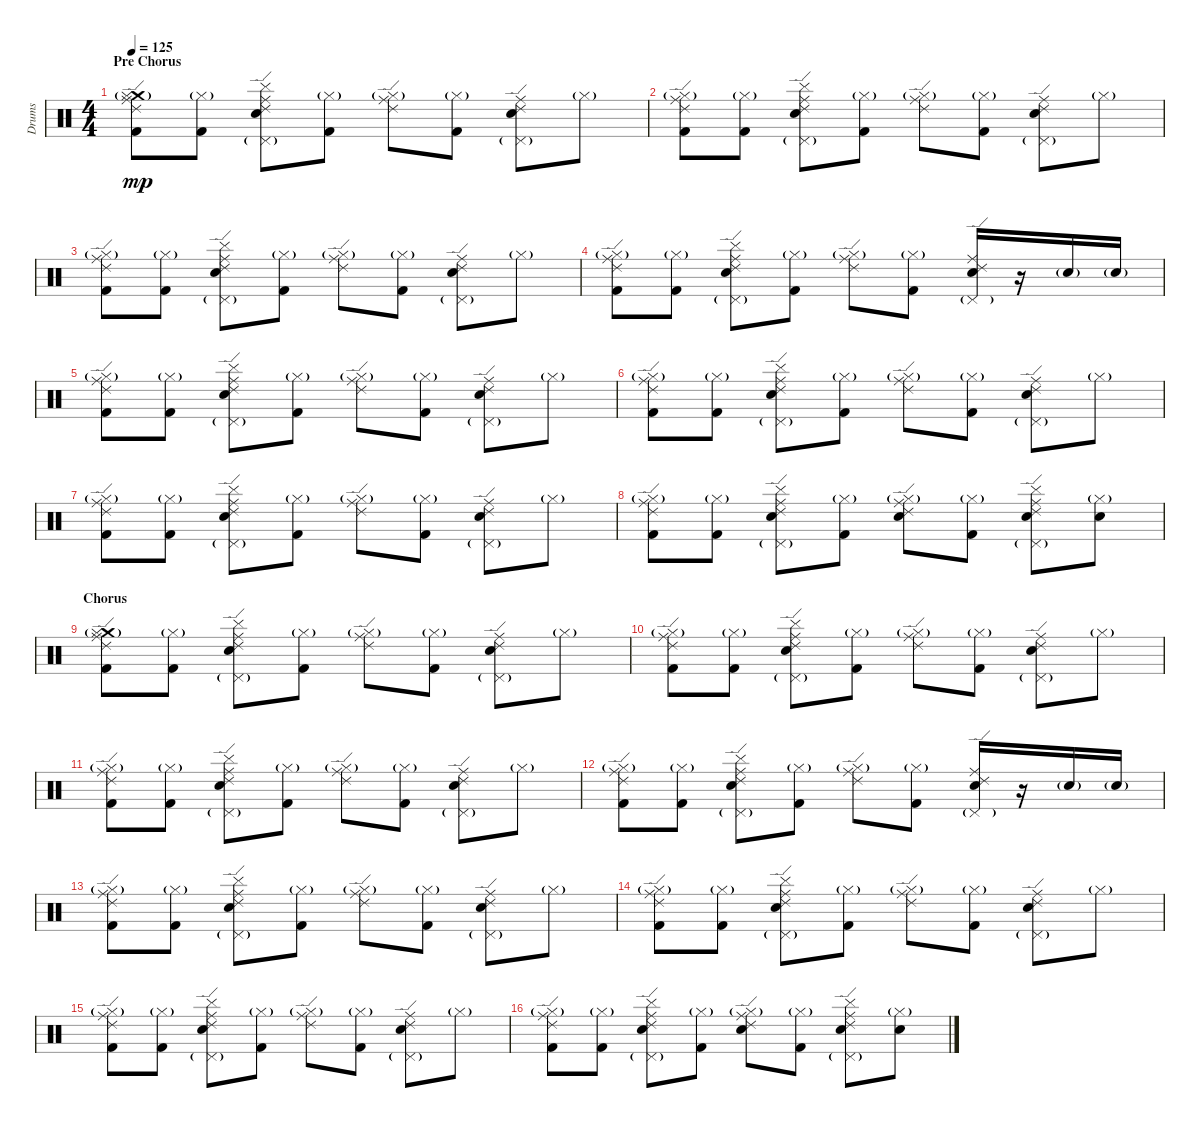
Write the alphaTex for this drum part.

\track ("Drums" "Drums") {instrument percussion}
\staff {score}
\articulation defaults
\ts (4 4)
\section ("" "Pre Chorus")
\tempo 125
\clef neutral
\ks c
("Crash medium (hit)" "Ride (middle)" "Hi-Hat (closed)"{g} "Ride (edge) 2" "Kick (hit) 2").8{dy mp} ("Hi-Hat (closed)"{g} "Kick (hit) 2").8 ("Ride (middle)" "Electric Snare (hit)" "Pedal Hi-Hat (hit)"{g} "Cymbal (hit)" "Ride (edge) 2").8 ("Hi-Hat (closed)"{g} "Kick (hit) 2").8 ("Ride (middle)" "Hi-Hat (closed)"{g} "Ride (edge) 2").8 ("Hi-Hat (closed)"{g} "Kick (hit) 2").8 ("Ride (middle)" "Electric Snare (hit)" "Pedal Hi-Hat (hit)"{g} "Ride (edge) 2").8 "Hi-Hat (closed)"{g}.8 |
("Ride (middle)" "Hi-Hat (closed)"{g} "Ride (edge) 2" "Kick (hit) 2").8 ("Hi-Hat (closed)"{g} "Kick (hit) 2").8 ("Ride (middle)" "Electric Snare (hit)" "Pedal Hi-Hat (hit)"{g} "Cymbal (hit)" "Ride (edge) 2").8 ("Hi-Hat (closed)"{g} "Kick (hit) 2").8 ("Ride (middle)" "Hi-Hat (closed)"{g} "Ride (edge) 2").8 ("Hi-Hat (closed)"{g} "Kick (hit) 2").8 ("Ride (middle)" "Electric Snare (hit)" "Pedal Hi-Hat (hit)"{g} "Ride (edge) 2").8 "Hi-Hat (closed)"{g}.8 |
("Ride (middle)" "Hi-Hat (closed)"{g} "Ride (edge) 2" "Kick (hit) 2").8 ("Hi-Hat (closed)"{g} "Kick (hit) 2").8 ("Ride (middle)" "Electric Snare (hit)" "Pedal Hi-Hat (hit)"{g} "Cymbal (hit)" "Ride (edge) 2").8 ("Hi-Hat (closed)"{g} "Kick (hit) 2").8 ("Ride (middle)" "Hi-Hat (closed)"{g} "Ride (edge) 2").8 ("Hi-Hat (closed)"{g} "Kick (hit) 2").8 ("Ride (middle)" "Electric Snare (hit)" "Pedal Hi-Hat (hit)"{g} "Ride (edge) 2").8 "Hi-Hat (closed)"{g}.8 |
("Ride (middle)" "Hi-Hat (closed)"{g} "Ride (edge) 2" "Kick (hit) 2").8 ("Hi-Hat (closed)"{g} "Kick (hit) 2").8 ("Ride (middle)" "Electric Snare (hit)" "Pedal Hi-Hat (hit)"{g} "Cymbal (hit)" "Ride (edge) 2").8 ("Hi-Hat (closed)"{g} "Kick (hit) 2").8 ("Ride (middle)" "Hi-Hat (closed)"{g} "Ride (edge) 2").8 ("Hi-Hat (closed)"{g} "Kick (hit) 2").8 ("Ride (middle)" "Electric Snare (hit)" "Pedal Hi-Hat (hit)"{g} "Ride (edge) 2").16 r.16 "Electric Snare (hit)"{g}.16 "Electric Snare (hit)"{g}.16 |
("Ride (middle)" "Hi-Hat (closed)"{g} "Ride (edge) 2" "Kick (hit) 2").8 ("Hi-Hat (closed)"{g} "Kick (hit) 2").8 ("Ride (middle)" "Electric Snare (hit)" "Pedal Hi-Hat (hit)"{g} "Cymbal (hit)" "Ride (edge) 2").8 ("Hi-Hat (closed)"{g} "Kick (hit) 2").8 ("Ride (middle)" "Hi-Hat (closed)"{g} "Ride (edge) 2").8 ("Hi-Hat (closed)"{g} "Kick (hit) 2").8 ("Ride (middle)" "Electric Snare (hit)" "Pedal Hi-Hat (hit)"{g} "Ride (edge) 2").8 "Hi-Hat (closed)"{g}.8 |
("Ride (middle)" "Hi-Hat (closed)"{g} "Ride (edge) 2" "Kick (hit) 2").8 ("Hi-Hat (closed)"{g} "Kick (hit) 2").8 ("Ride (middle)" "Electric Snare (hit)" "Pedal Hi-Hat (hit)"{g} "Cymbal (hit)" "Ride (edge) 2").8 ("Hi-Hat (closed)"{g} "Kick (hit) 2").8 ("Ride (middle)" "Hi-Hat (closed)"{g} "Ride (edge) 2").8 ("Hi-Hat (closed)"{g} "Kick (hit) 2").8 ("Ride (middle)" "Electric Snare (hit)" "Pedal Hi-Hat (hit)"{g} "Ride (edge) 2").8 "Hi-Hat (closed)"{g}.8 |
("Ride (middle)" "Hi-Hat (closed)"{g} "Ride (edge) 2" "Kick (hit) 2").8 ("Hi-Hat (closed)"{g} "Kick (hit) 2").8 ("Ride (middle)" "Electric Snare (hit)" "Pedal Hi-Hat (hit)"{g} "Cymbal (hit)" "Ride (edge) 2").8 ("Hi-Hat (closed)"{g} "Kick (hit) 2").8 ("Ride (middle)" "Hi-Hat (closed)"{g} "Ride (edge) 2").8 ("Hi-Hat (closed)"{g} "Kick (hit) 2").8 ("Ride (middle)" "Electric Snare (hit)" "Pedal Hi-Hat (hit)"{g} "Ride (edge) 2").8 "Hi-Hat (closed)"{g}.8 |
("Ride (middle)" "Hi-Hat (closed)"{g} "Ride (edge) 2" "Kick (hit) 2").8 ("Hi-Hat (closed)"{g} "Kick (hit) 2").8 ("Ride (middle)" "Electric Snare (hit)" "Pedal Hi-Hat (hit)"{g} "Cymbal (hit)" "Ride (edge) 2").8 ("Hi-Hat (closed)"{g} "Kick (hit) 2").8 ("Ride (middle)" "Electric Snare (hit)" "Hi-Hat (closed)"{g} "Ride (edge) 2").8 ("Hi-Hat (closed)"{g} "Kick (hit) 2").8 ("Ride (middle)" "Electric Snare (hit)" "Pedal Hi-Hat (hit)"{g} "Cymbal (hit)" "Ride (edge) 2").8 ("Electric Snare (hit)" "Hi-Hat (closed)"{g}).8 |
\section ("" "Chorus")
("Crash medium (hit)" "Ride (middle)" "Hi-Hat (closed)"{g} "Ride (edge) 2" "Kick (hit) 2").8 ("Hi-Hat (closed)"{g} "Kick (hit) 2").8 ("Ride (middle)" "Electric Snare (hit)" "Pedal Hi-Hat (hit)"{g} "Cymbal (hit)" "Ride (edge) 2").8 ("Hi-Hat (closed)"{g} "Kick (hit) 2").8 ("Ride (middle)" "Hi-Hat (closed)"{g} "Ride (edge) 2").8 ("Hi-Hat (closed)"{g} "Kick (hit) 2").8 ("Ride (middle)" "Electric Snare (hit)" "Pedal Hi-Hat (hit)"{g} "Ride (edge) 2").8 "Hi-Hat (closed)"{g}.8 |
("Ride (middle)" "Hi-Hat (closed)"{g} "Ride (edge) 2" "Kick (hit) 2").8 ("Hi-Hat (closed)"{g} "Kick (hit) 2").8 ("Ride (middle)" "Electric Snare (hit)" "Pedal Hi-Hat (hit)"{g} "Cymbal (hit)" "Ride (edge) 2").8 ("Hi-Hat (closed)"{g} "Kick (hit) 2").8 ("Ride (middle)" "Hi-Hat (closed)"{g} "Ride (edge) 2").8 ("Hi-Hat (closed)"{g} "Kick (hit) 2").8 ("Ride (middle)" "Electric Snare (hit)" "Pedal Hi-Hat (hit)"{g} "Ride (edge) 2").8 "Hi-Hat (closed)"{g}.8 |
("Ride (middle)" "Hi-Hat (closed)"{g} "Ride (edge) 2" "Kick (hit) 2").8 ("Hi-Hat (closed)"{g} "Kick (hit) 2").8 ("Ride (middle)" "Electric Snare (hit)" "Pedal Hi-Hat (hit)"{g} "Cymbal (hit)" "Ride (edge) 2").8 ("Hi-Hat (closed)"{g} "Kick (hit) 2").8 ("Ride (middle)" "Hi-Hat (closed)"{g} "Ride (edge) 2").8 ("Hi-Hat (closed)"{g} "Kick (hit) 2").8 ("Ride (middle)" "Electric Snare (hit)" "Pedal Hi-Hat (hit)"{g} "Ride (edge) 2").8 "Hi-Hat (closed)"{g}.8 |
("Ride (middle)" "Hi-Hat (closed)"{g} "Ride (edge) 2" "Kick (hit) 2").8 ("Hi-Hat (closed)"{g} "Kick (hit) 2").8 ("Ride (middle)" "Electric Snare (hit)" "Pedal Hi-Hat (hit)"{g} "Cymbal (hit)" "Ride (edge) 2").8 ("Hi-Hat (closed)"{g} "Kick (hit) 2").8 ("Ride (middle)" "Hi-Hat (closed)"{g} "Ride (edge) 2").8 ("Hi-Hat (closed)"{g} "Kick (hit) 2").8 ("Ride (middle)" "Electric Snare (hit)" "Pedal Hi-Hat (hit)"{g} "Ride (edge) 2").16 r.16 "Electric Snare (hit)"{g}.16 "Electric Snare (hit)"{g}.16 |
("Ride (middle)" "Hi-Hat (closed)"{g} "Ride (edge) 2" "Kick (hit) 2").8 ("Hi-Hat (closed)"{g} "Kick (hit) 2").8 ("Ride (middle)" "Electric Snare (hit)" "Pedal Hi-Hat (hit)"{g} "Cymbal (hit)" "Ride (edge) 2").8 ("Hi-Hat (closed)"{g} "Kick (hit) 2").8 ("Ride (middle)" "Hi-Hat (closed)"{g} "Ride (edge) 2").8 ("Hi-Hat (closed)"{g} "Kick (hit) 2").8 ("Ride (middle)" "Electric Snare (hit)" "Pedal Hi-Hat (hit)"{g} "Ride (edge) 2").8 "Hi-Hat (closed)"{g}.8 |
("Ride (middle)" "Hi-Hat (closed)"{g} "Ride (edge) 2" "Kick (hit) 2").8 ("Hi-Hat (closed)"{g} "Kick (hit) 2").8 ("Ride (middle)" "Electric Snare (hit)" "Pedal Hi-Hat (hit)"{g} "Cymbal (hit)" "Ride (edge) 2").8 ("Hi-Hat (closed)"{g} "Kick (hit) 2").8 ("Ride (middle)" "Hi-Hat (closed)"{g} "Ride (edge) 2").8 ("Hi-Hat (closed)"{g} "Kick (hit) 2").8 ("Ride (middle)" "Electric Snare (hit)" "Pedal Hi-Hat (hit)"{g} "Ride (edge) 2").8 "Hi-Hat (closed)"{g}.8 |
("Ride (middle)" "Hi-Hat (closed)"{g} "Ride (edge) 2" "Kick (hit) 2").8 ("Hi-Hat (closed)"{g} "Kick (hit) 2").8 ("Ride (middle)" "Electric Snare (hit)" "Pedal Hi-Hat (hit)"{g} "Cymbal (hit)" "Ride (edge) 2").8 ("Hi-Hat (closed)"{g} "Kick (hit) 2").8 ("Ride (middle)" "Hi-Hat (closed)"{g} "Ride (edge) 2").8 ("Hi-Hat (closed)"{g} "Kick (hit) 2").8 ("Ride (middle)" "Electric Snare (hit)" "Pedal Hi-Hat (hit)"{g} "Ride (edge) 2").8 "Hi-Hat (closed)"{g}.8 |
("Ride (middle)" "Hi-Hat (closed)"{g} "Ride (edge) 2" "Kick (hit) 2").8 ("Hi-Hat (closed)"{g} "Kick (hit) 2").8 ("Ride (middle)" "Electric Snare (hit)" "Pedal Hi-Hat (hit)"{g} "Cymbal (hit)" "Ride (edge) 2").8 ("Hi-Hat (closed)"{g} "Kick (hit) 2").8 ("Ride (middle)" "Electric Snare (hit)" "Hi-Hat (closed)"{g} "Ride (edge) 2").8 ("Hi-Hat (closed)"{g} "Kick (hit) 2").8 ("Ride (middle)" "Electric Snare (hit)" "Pedal Hi-Hat (hit)"{g} "Cymbal (hit)" "Ride (edge) 2").8 ("Electric Snare (hit)" "Hi-Hat (closed)"{g}).8
